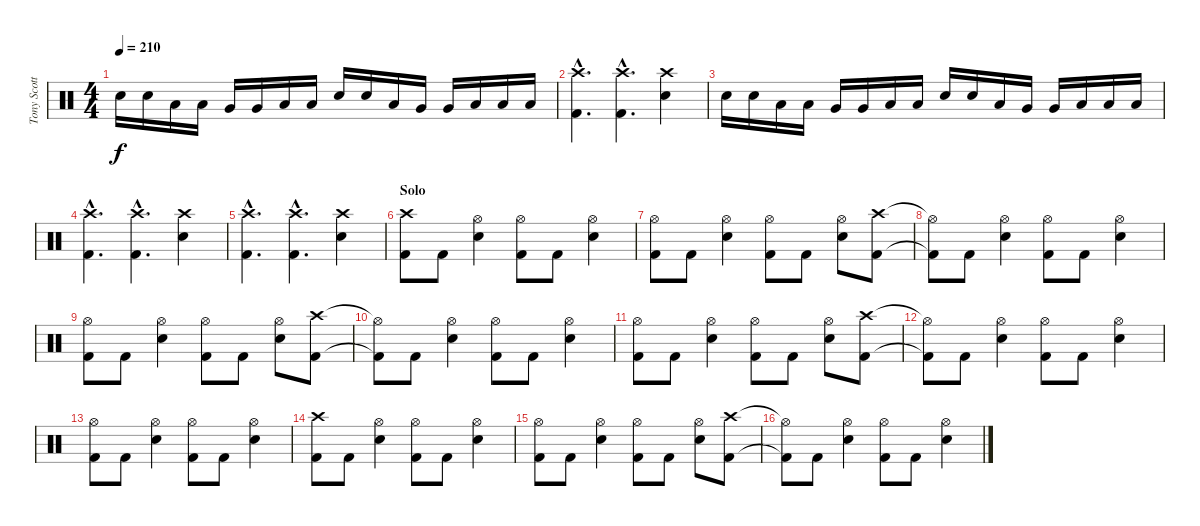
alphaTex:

\track ("Tony Scotto" "Tony Scott") {instrument percussion}
\staff {score}
\articulation defaults
\ts (4 4)
\tempo 210
\clef neutral
\ks c "Snare (hit) 2".16{dy f} "Snare (hit) 2".16 "Low Tom (hit)".16 "Low Tom (hit)".16 "Very Low Tom (hit)".16 "Very Low Tom (hit)".16 "Low Floor Tom (hit)".16 "Low Floor Tom (hit)".16 "Snare (hit) 2".16 "Snare (hit) 2".16 "Low Tom (hit)".16 "Very Low Tom (hit)".16 "Very Low Tom (hit)".16 "Low Floor Tom (hit)".16 "Low Floor Tom (hit)".16 "Low Tom (hit)".16
|
("Crash high (hit)"{hac} "Kick (hit) 2"{hac}).4{d} ("Crash high (hit)"{hac} "Kick (hit) 2"{hac}).4{d} ("Crash high (hit)" "Snare (hit) 2").4 |
"Snare (hit) 2".16 "Snare (hit) 2".16 "Low Tom (hit)".16 "Low Tom (hit)".16 "Very Low Tom (hit)".16 "Very Low Tom (hit)".16 "Low Floor Tom (hit)".16 "Low Floor Tom (hit)".16 "Snare (hit) 2".16 "Snare (hit) 2".16 "Low Tom (hit)".16 "Very Low Tom (hit)".16 "Very Low Tom (hit)".16 "Low Floor Tom (hit)".16 "Low Floor Tom (hit)".16 "Low Tom (hit)".16 |
("Crash high (hit)"{hac} "Kick (hit) 2"{hac}).4{d} ("Crash high (hit)"{hac} "Kick (hit) 2"{hac}).4{d} ("Crash high (hit)" "Snare (hit) 2").4 |
("Crash high (hit)"{hac} "Kick (hit) 2"{hac}).4{d} ("Crash high (hit)"{hac} "Kick (hit) 2"{hac}).4{d} ("Crash high (hit)" "Snare (hit) 2").4 |
\section ("" "Solo")
("Crash high (hit)" "Kick (hit) 2").8 "Kick (hit) 2".8 ("Hi-Hat (open)" "Snare (hit) 2").4 ("Hi-Hat (open)" "Kick (hit) 2").8 "Kick (hit) 2".8 ("Hi-Hat (open)" "Snare (hit) 2").4 |
("Hi-Hat (open)" "Kick (hit) 2").8 "Kick (hit) 2".8 ("Hi-Hat (open)" "Snare (hit) 2").4 ("Hi-Hat (open)" "Kick (hit) 2").8 "Kick (hit) 2".8 ("Hi-Hat (open)" "Snare (hit) 2").8 ("Crash high (hit)" "Kick (hit) 2").8 |
("Hi-Hat (open)"{t} "Kick (hit) 2"{t}).8 "Kick (hit) 2".8 ("Hi-Hat (open)" "Snare (hit) 2").4 ("Hi-Hat (open)" "Kick (hit) 2").8 "Kick (hit) 2".8 ("Hi-Hat (open)" "Snare (hit) 2").4 |
("Hi-Hat (open)" "Kick (hit) 2").8 "Kick (hit) 2".8 ("Hi-Hat (open)" "Snare (hit) 2").4 ("Hi-Hat (open)" "Kick (hit) 2").8 "Kick (hit) 2".8 ("Hi-Hat (open)" "Snare (hit) 2").8 ("Crash high (hit)" "Kick (hit) 2").8 |
("Hi-Hat (open)"{t} "Kick (hit) 2"{t}).8 "Kick (hit) 2".8 ("Hi-Hat (open)" "Snare (hit) 2").4 ("Hi-Hat (open)" "Kick (hit) 2").8 "Kick (hit) 2".8 ("Hi-Hat (open)" "Snare (hit) 2").4 |
("Hi-Hat (open)" "Kick (hit) 2").8 "Kick (hit) 2".8 ("Hi-Hat (open)" "Snare (hit) 2").4 ("Hi-Hat (open)" "Kick (hit) 2").8 "Kick (hit) 2".8 ("Hi-Hat (open)" "Snare (hit) 2").8 ("Crash high (hit)" "Kick (hit) 2").8 |
("Hi-Hat (open)"{t} "Kick (hit) 2"{t}).8 "Kick (hit) 2".8 ("Hi-Hat (open)" "Snare (hit) 2").4 ("Hi-Hat (open)" "Kick (hit) 2").8 "Kick (hit) 2".8 ("Hi-Hat (open)" "Snare (hit) 2").4 |
("Hi-Hat (open)" "Kick (hit) 2").8 "Kick (hit) 2".8 ("Hi-Hat (open)" "Snare (hit) 2").4 ("Hi-Hat (open)" "Kick (hit) 2").8 "Kick (hit) 2".8 ("Hi-Hat (open)" "Snare (hit) 2").4 |
("Crash high (hit)" "Kick (hit) 2").8 "Kick (hit) 2".8 ("Hi-Hat (open)" "Snare (hit) 2").4 ("Hi-Hat (open)" "Kick (hit) 2").8 "Kick (hit) 2".8 ("Hi-Hat (open)" "Snare (hit) 2").4 |
("Hi-Hat (open)" "Kick (hit) 2").8 "Kick (hit) 2".8 ("Hi-Hat (open)" "Snare (hit) 2").4 ("Hi-Hat (open)" "Kick (hit) 2").8 "Kick (hit) 2".8 ("Hi-Hat (open)" "Snare (hit) 2").8 ("Crash high (hit)" "Kick (hit) 2").8 |
("Hi-Hat (open)"{t} "Kick (hit) 2"{t}).8 "Kick (hit) 2".8 ("Hi-Hat (open)" "Snare (hit) 2").4 ("Hi-Hat (open)" "Kick (hit) 2").8 "Kick (hit) 2".8 ("Hi-Hat (open)" "Snare (hit) 2").4
